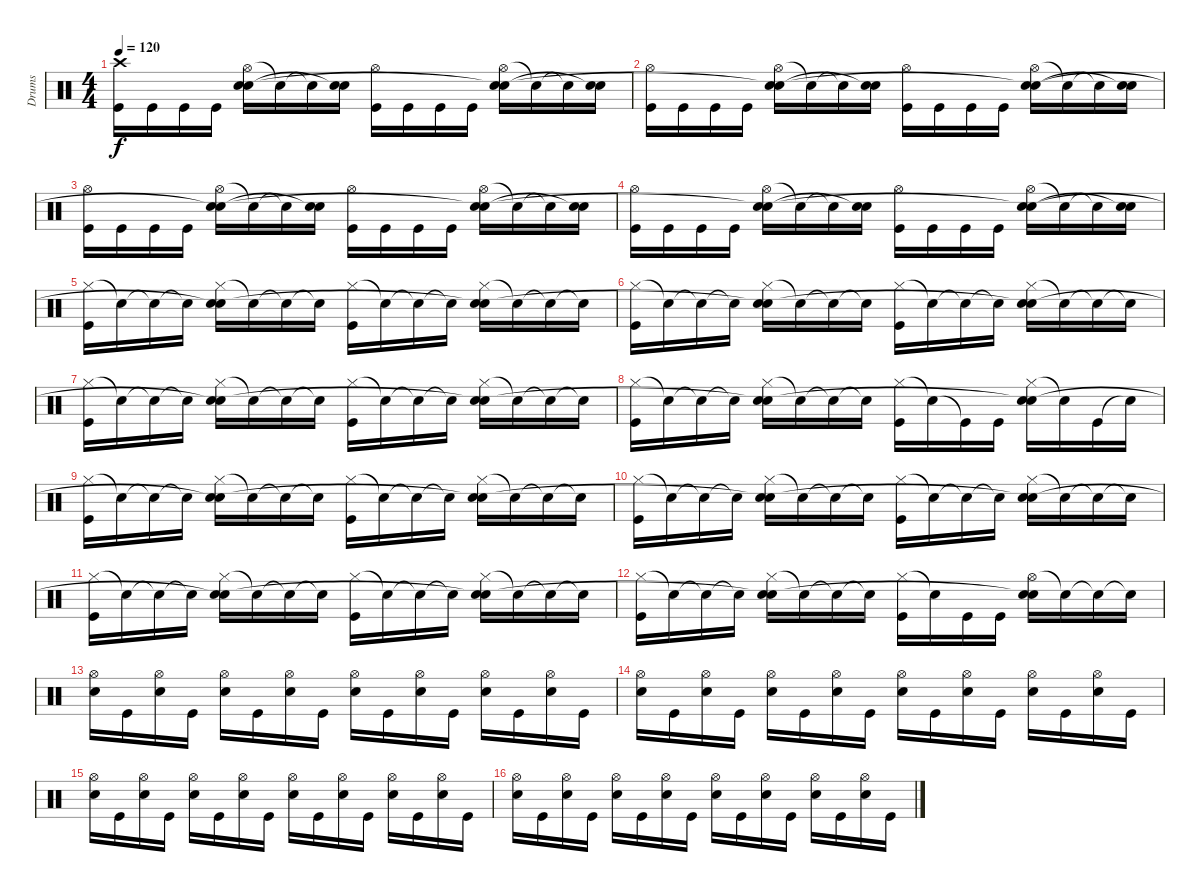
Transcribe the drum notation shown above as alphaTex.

\track ("Drums" "Drums") {instrument percussion}
\staff {score}
\articulation defaults
\ts (4 4)
\tempo 120
\clef neutral
\ks c
("Crash high (hit)" "Kick (hit)").16{dy f} "Kick (hit)".16 "Kick (hit)".16 "Kick (hit)".16 ("Hi-Hat (open)" "Electric Snare (hit)" "Snare (hit)"{t}).16 "Snare (hit)"{t}.16 "Snare (hit)"{t}.16 ("Electric Snare (hit)" "Snare (hit)"{t}).16 ("Hi-Hat (open)" "Kick (hit)").16 "Kick (hit)".16 "Kick (hit)".16 "Kick (hit)".16 ("Hi-Hat (open)" "Electric Snare (hit)" "Snare (hit)"{t}).16 "Snare (hit)"{t}.16 "Snare (hit)"{t}.16 ("Electric Snare (hit)" "Snare (hit)"{t}).16 |
("Hi-Hat (open)" "Kick (hit)").16 "Kick (hit)".16 "Kick (hit)".16 "Kick (hit)".16 ("Hi-Hat (open)" "Electric Snare (hit)" "Snare (hit)"{t}).16 "Snare (hit)"{t}.16 "Snare (hit)"{t}.16 ("Electric Snare (hit)" "Snare (hit)"{t}).16 ("Hi-Hat (open)" "Kick (hit)").16 "Kick (hit)".16 "Kick (hit)".16 "Kick (hit)".16 ("Hi-Hat (open)" "Electric Snare (hit)" "Snare (hit)"{t}).16 "Snare (hit)"{t}.16 "Snare (hit)"{t}.16 ("Electric Snare (hit)" "Snare (hit)"{t}).16 |
("Hi-Hat (open)" "Kick (hit)").16 "Kick (hit)".16 "Kick (hit)".16 "Kick (hit)".16 ("Hi-Hat (open)" "Electric Snare (hit)" "Snare (hit)"{t}).16 "Snare (hit)"{t}.16 "Snare (hit)"{t}.16 ("Electric Snare (hit)" "Snare (hit)"{t}).16 ("Hi-Hat (open)" "Kick (hit)").16 "Kick (hit)".16 "Kick (hit)".16 "Kick (hit)".16 ("Hi-Hat (open)" "Electric Snare (hit)" "Snare (hit)"{t}).16 "Snare (hit)"{t}.16 "Snare (hit)"{t}.16 ("Electric Snare (hit)" "Snare (hit)"{t}).16 |
("Hi-Hat (open)" "Kick (hit)").16 "Kick (hit)".16 "Kick (hit)".16 "Kick (hit)".16 ("Hi-Hat (open)" "Electric Snare (hit)" "Snare (hit)"{t}).16 "Snare (hit)"{t}.16 "Snare (hit)"{t}.16 ("Electric Snare (hit)" "Snare (hit)"{t}).16 ("Hi-Hat (open)" "Kick (hit)").16 "Kick (hit)".16 "Kick (hit)".16 "Kick (hit)".16 ("Hi-Hat (open)" "Electric Snare (hit)" "Snare (hit)"{t}).16 "Snare (hit)"{t}.16 "Snare (hit)"{t}.16 ("Electric Snare (hit)" "Snare (hit)"{t}).16 |
("Hi-Hat (closed)" "Kick (hit)").16 "Snare (hit)"{t}.16 "Snare (hit)"{t}.16 "Snare (hit)"{t}.16 ("Hi-Hat (closed)" "Electric Snare (hit)" "Snare (hit)"{t}).16 "Snare (hit)"{t}.16 "Snare (hit)"{t}.16 "Snare (hit)"{t}.16 ("Hi-Hat (closed)" "Kick (hit)").16 "Snare (hit)"{t}.16 "Snare (hit)"{t}.16 "Snare (hit)"{t}.16 ("Hi-Hat (closed)" "Electric Snare (hit)" "Snare (hit)"{t}).16 "Snare (hit)"{t}.16 "Snare (hit)"{t}.16 "Snare (hit)"{t}.16 |
("Hi-Hat (closed)" "Kick (hit)").16 "Snare (hit)"{t}.16 "Snare (hit)"{t}.16 "Snare (hit)"{t}.16 ("Hi-Hat (closed)" "Electric Snare (hit)" "Snare (hit)"{t}).16 "Snare (hit)"{t}.16 "Snare (hit)"{t}.16 "Snare (hit)"{t}.16 ("Hi-Hat (closed)" "Kick (hit)").16 "Snare (hit)"{t}.16 "Snare (hit)"{t}.16 "Snare (hit)"{t}.16 ("Hi-Hat (closed)" "Electric Snare (hit)" "Snare (hit)"{t}).16 "Snare (hit)"{t}.16 "Snare (hit)"{t}.16 "Snare (hit)"{t}.16 |
("Hi-Hat (closed)" "Kick (hit)").16 "Snare (hit)"{t}.16 "Snare (hit)"{t}.16 "Snare (hit)"{t}.16 ("Hi-Hat (closed)" "Electric Snare (hit)" "Snare (hit)"{t}).16 "Snare (hit)"{t}.16 "Snare (hit)"{t}.16 "Snare (hit)"{t}.16 ("Hi-Hat (closed)" "Kick (hit)").16 "Snare (hit)"{t}.16 "Snare (hit)"{t}.16 "Snare (hit)"{t}.16 ("Hi-Hat (closed)" "Electric Snare (hit)" "Snare (hit)"{t}).16 "Snare (hit)"{t}.16 "Snare (hit)"{t}.16 "Snare (hit)"{t}.16 |
("Hi-Hat (closed)" "Kick (hit)").16 "Snare (hit)"{t}.16 "Snare (hit)"{t}.16 "Snare (hit)"{t}.16 ("Hi-Hat (closed)" "Electric Snare (hit)" "Snare (hit)"{t}).16 "Snare (hit)"{t}.16 "Snare (hit)"{t}.16 "Snare (hit)"{t}.16 ("Hi-Hat (closed)" "Kick (hit)").16 "Snare (hit)"{t}.16 "Kick (hit)"{t}.16 "Kick (hit)".16 ("Hi-Hat (closed)" "Electric Snare (hit)" "Snare (hit)"{t}).16 "Snare (hit)"{t}.16 "Kick (hit)".16 "Snare (hit)"{t}.16 |
("Hi-Hat (closed)" "Kick (hit)").16 "Snare (hit)"{t}.16 "Snare (hit)"{t}.16 "Snare (hit)"{t}.16 ("Hi-Hat (closed)" "Electric Snare (hit)" "Snare (hit)"{t}).16 "Snare (hit)"{t}.16 "Snare (hit)"{t}.16 "Snare (hit)"{t}.16 ("Hi-Hat (closed)" "Kick (hit)").16 "Snare (hit)"{t}.16 "Snare (hit)"{t}.16 "Snare (hit)"{t}.16 ("Hi-Hat (closed)" "Electric Snare (hit)" "Snare (hit)"{t}).16 "Snare (hit)"{t}.16 "Snare (hit)"{t}.16 "Snare (hit)"{t}.16 |
("Hi-Hat (closed)" "Kick (hit)").16 "Snare (hit)"{t}.16 "Snare (hit)"{t}.16 "Snare (hit)"{t}.16 ("Hi-Hat (closed)" "Electric Snare (hit)" "Snare (hit)"{t}).16 "Snare (hit)"{t}.16 "Snare (hit)"{t}.16 "Snare (hit)"{t}.16 ("Hi-Hat (closed)" "Kick (hit)").16 "Snare (hit)"{t}.16 "Snare (hit)"{t}.16 "Snare (hit)"{t}.16 ("Hi-Hat (closed)" "Electric Snare (hit)" "Snare (hit)"{t}).16 "Snare (hit)"{t}.16 "Snare (hit)"{t}.16 "Snare (hit)"{t}.16 |
("Hi-Hat (closed)" "Kick (hit)").16 "Snare (hit)"{t}.16 "Snare (hit)"{t}.16 "Snare (hit)"{t}.16 ("Hi-Hat (closed)" "Electric Snare (hit)" "Snare (hit)"{t}).16 "Snare (hit)"{t}.16 "Snare (hit)"{t}.16 "Snare (hit)"{t}.16 ("Hi-Hat (closed)" "Kick (hit)").16 "Snare (hit)"{t}.16 "Snare (hit)"{t}.16 "Snare (hit)"{t}.16 ("Hi-Hat (closed)" "Electric Snare (hit)" "Snare (hit)"{t}).16 "Snare (hit)"{t}.16 "Snare (hit)"{t}.16 "Snare (hit)"{t}.16 |
("Hi-Hat (closed)" "Kick (hit)").16 "Snare (hit)"{t}.16 "Snare (hit)"{t}.16 "Snare (hit)"{t}.16 ("Hi-Hat (closed)" "Electric Snare (hit)" "Snare (hit)"{t}).16 "Snare (hit)"{t}.16 "Snare (hit)"{t}.16 "Snare (hit)"{t}.16 ("Hi-Hat (closed)" "Kick (hit)").16 "Snare (hit)"{t}.16 "Kick (hit)".16 "Kick (hit)".16 ("Hi-Hat (open)" "Electric Snare (hit)" "Snare (hit)"{t}).16 "Snare (hit)"{t}.16 "Snare (hit)"{t}.16 "Snare (hit)"{t}.16 |
("Hi-Hat (open)" "Electric Snare (hit)").16 "Kick (hit)".16 ("Hi-Hat (open)" "Electric Snare (hit)").16 "Kick (hit)".16 ("Hi-Hat (open)" "Electric Snare (hit)").16 "Kick (hit)".16 ("Hi-Hat (open)" "Electric Snare (hit)").16 "Kick (hit)".16 ("Hi-Hat (open)" "Electric Snare (hit)").16 "Kick (hit)".16 ("Hi-Hat (open)" "Electric Snare (hit)").16 "Kick (hit)".16 ("Hi-Hat (open)" "Electric Snare (hit)").16 "Kick (hit)".16 ("Hi-Hat (open)" "Electric Snare (hit)").16 "Kick (hit)".16 |
("Hi-Hat (open)" "Electric Snare (hit)").16 "Kick (hit)".16 ("Hi-Hat (open)" "Electric Snare (hit)").16 "Kick (hit)".16 ("Hi-Hat (open)" "Electric Snare (hit)").16 "Kick (hit)".16 ("Hi-Hat (open)" "Electric Snare (hit)").16 "Kick (hit)".16 ("Hi-Hat (open)" "Electric Snare (hit)").16 "Kick (hit)".16 ("Hi-Hat (open)" "Electric Snare (hit)").16 "Kick (hit)".16 ("Hi-Hat (open)" "Electric Snare (hit)").16 "Kick (hit)".16 ("Hi-Hat (open)" "Electric Snare (hit)").16 "Kick (hit)".16 |
("Hi-Hat (open)" "Electric Snare (hit)").16 "Kick (hit)".16 ("Hi-Hat (open)" "Electric Snare (hit)").16 "Kick (hit)".16 ("Hi-Hat (open)" "Electric Snare (hit)").16 "Kick (hit)".16 ("Hi-Hat (open)" "Electric Snare (hit)").16 "Kick (hit)".16 ("Hi-Hat (open)" "Electric Snare (hit)").16 "Kick (hit)".16 ("Hi-Hat (open)" "Electric Snare (hit)").16 "Kick (hit)".16 ("Hi-Hat (open)" "Electric Snare (hit)").16 "Kick (hit)".16 ("Hi-Hat (open)" "Electric Snare (hit)").16 "Kick (hit)".16 |
("Hi-Hat (open)" "Electric Snare (hit)").16 "Kick (hit)".16 ("Hi-Hat (open)" "Electric Snare (hit)").16 "Kick (hit)".16 ("Hi-Hat (open)" "Electric Snare (hit)").16 "Kick (hit)".16 ("Hi-Hat (open)" "Electric Snare (hit)").16 "Kick (hit)".16 ("Hi-Hat (open)" "Electric Snare (hit)").16 "Kick (hit)".16 ("Hi-Hat (open)" "Electric Snare (hit)").16 "Kick (hit)".16 ("Hi-Hat (open)" "Electric Snare (hit)").16 "Kick (hit)".16 ("Hi-Hat (open)" "Electric Snare (hit)").16 "Kick (hit)".16
